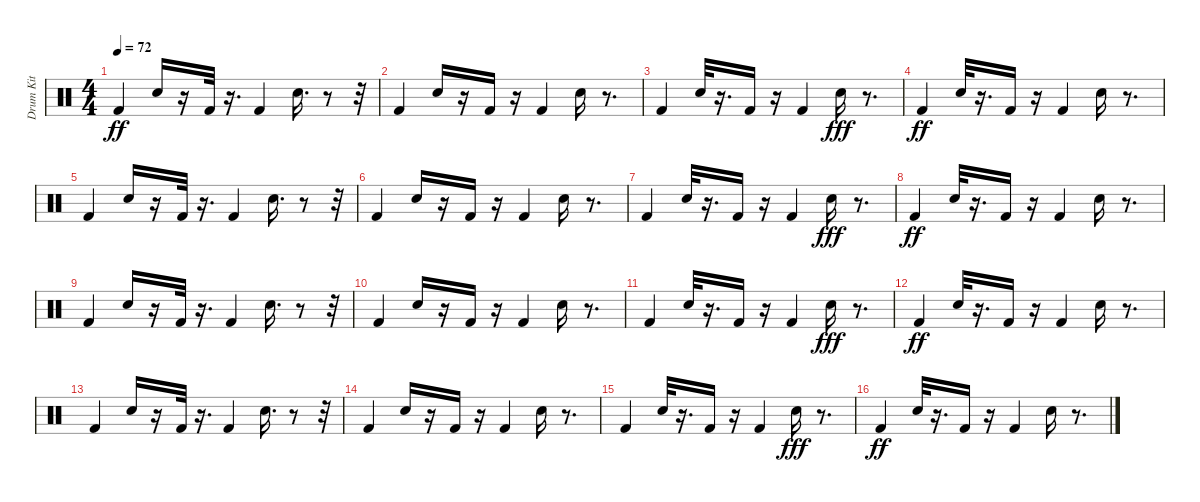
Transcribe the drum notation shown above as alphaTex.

\track ("Drum Kit" "Drum Kit") {instrument percussion}
\staff {score}
\articulation defaults
\ts (4 4)
\tempo 72
\clef neutral
\ks c "Kick (hit) 2".4{dy ff} "Electric Snare (hit)".16
r.16 "Kick (hit) 2".32 r.16{d} "Kick (hit) 2".4 "Electric Snare (hit)".16{d} r.8 r.32 |
"Kick (hit) 2".4 "Electric Snare (hit)".16 r.16 "Kick (hit) 2".16 r.16 "Kick (hit) 2".4 "Electric Snare (hit)".16 r.8{d} |
"Kick (hit) 2".4 "Electric Snare (hit)".32 r.16{d} "Kick (hit) 2".16 r.16 "Kick (hit) 2".4 "Electric Snare (hit)".16{dy fff} r.8{d} |
"Kick (hit) 2".4{dy ff} "Electric Snare (hit)".32 r.16{d} "Kick (hit) 2".16 r.16 "Kick (hit) 2".4 "Electric Snare (hit)".16 r.8{d} |
"Kick (hit) 2".4 "Electric Snare (hit)".16 r.16 "Kick (hit) 2".32 r.16{d} "Kick (hit) 2".4 "Electric Snare (hit)".16{d} r.8 r.32 |
"Kick (hit) 2".4 "Electric Snare (hit)".16 r.16 "Kick (hit) 2".16 r.16 "Kick (hit) 2".4 "Electric Snare (hit)".16 r.8{d} |
"Kick (hit) 2".4 "Electric Snare (hit)".32 r.16{d} "Kick (hit) 2".16 r.16 "Kick (hit) 2".4 "Electric Snare (hit)".16{dy fff} r.8{d} |
"Kick (hit) 2".4{dy ff} "Electric Snare (hit)".32 r.16{d} "Kick (hit) 2".16 r.16 "Kick (hit) 2".4 "Electric Snare (hit)".16 r.8{d} |
"Kick (hit) 2".4 "Electric Snare (hit)".16 r.16 "Kick (hit) 2".32 r.16{d} "Kick (hit) 2".4 "Electric Snare (hit)".16{d} r.8 r.32 |
"Kick (hit) 2".4 "Electric Snare (hit)".16 r.16 "Kick (hit) 2".16 r.16 "Kick (hit) 2".4 "Electric Snare (hit)".16 r.8{d} |
"Kick (hit) 2".4 "Electric Snare (hit)".32 r.16{d} "Kick (hit) 2".16 r.16 "Kick (hit) 2".4 "Electric Snare (hit)".16{dy fff} r.8{d} |
"Kick (hit) 2".4{dy ff} "Electric Snare (hit)".32 r.16{d} "Kick (hit) 2".16 r.16 "Kick (hit) 2".4 "Electric Snare (hit)".16 r.8{d} |
"Kick (hit) 2".4 "Electric Snare (hit)".16 r.16 "Kick (hit) 2".32 r.16{d} "Kick (hit) 2".4 "Electric Snare (hit)".16{d} r.8 r.32 |
"Kick (hit) 2".4 "Electric Snare (hit)".16 r.16 "Kick (hit) 2".16 r.16 "Kick (hit) 2".4 "Electric Snare (hit)".16 r.8{d} |
"Kick (hit) 2".4 "Electric Snare (hit)".32 r.16{d} "Kick (hit) 2".16 r.16 "Kick (hit) 2".4 "Electric Snare (hit)".16{dy fff} r.8{d} |
"Kick (hit) 2".4{dy ff} "Electric Snare (hit)".32 r.16{d} "Kick (hit) 2".16 r.16 "Kick (hit) 2".4 "Electric Snare (hit)".16 r.8{d}
